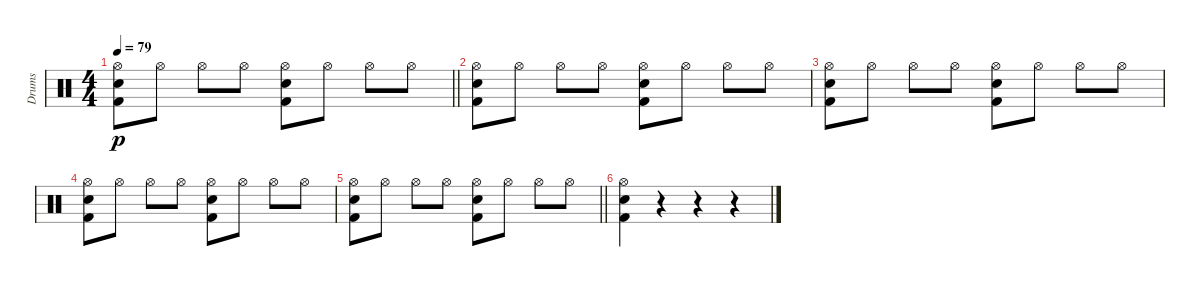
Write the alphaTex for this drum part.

\track ("Drums" "Drums") {instrument percussion}
\staff
\articulation defaults
\ts (4 4)
\tempo 79
\clef neutral
\barLineRight lightlight
\ks c
("Hi-Hat (open)" "Electric Snare (hit)" "Kick (hit) 2").8{dy p} "Hi-Hat (open)".8 "Hi-Hat (open)".8 "Hi-Hat (open)".8 ("Hi-Hat (open)" "Electric Snare (hit)" "Kick (hit) 2").8 "Hi-Hat (open)".8 "Hi-Hat (open)".8 "Hi-Hat (open)".8 |
("Hi-Hat (open)" "Electric Snare (hit)" "Kick (hit) 2").8 "Hi-Hat (open)".8 "Hi-Hat (open)".8 "Hi-Hat (open)".8 ("Hi-Hat (open)" "Electric Snare (hit)" "Kick (hit) 2").8 "Hi-Hat (open)".8 "Hi-Hat (open)".8 "Hi-Hat (open)".8 |
("Hi-Hat (open)" "Electric Snare (hit)" "Kick (hit) 2").8 "Hi-Hat (open)".8 "Hi-Hat (open)".8 "Hi-Hat (open)".8 ("Hi-Hat (open)" "Electric Snare (hit)" "Kick (hit) 2").8 "Hi-Hat (open)".8 "Hi-Hat (open)".8 "Hi-Hat (open)".8 |
("Hi-Hat (open)" "Electric Snare (hit)" "Kick (hit) 2").8 "Hi-Hat (open)".8 "Hi-Hat (open)".8 "Hi-Hat (open)".8 ("Hi-Hat (open)" "Electric Snare (hit)" "Kick (hit) 2").8 "Hi-Hat (open)".8 "Hi-Hat (open)".8 "Hi-Hat (open)".8 |
\barLineRight lightlight
("Hi-Hat (open)" "Electric Snare (hit)" "Kick (hit) 2").8 "Hi-Hat (open)".8 "Hi-Hat (open)".8 "Hi-Hat (open)".8 ("Hi-Hat (open)" "Electric Snare (hit)" "Kick (hit) 2").8 "Hi-Hat (open)".8 "Hi-Hat (open)".8 "Hi-Hat (open)".8 |
("Hi-Hat (open)" "Electric Snare (hit)" "Kick (hit) 2").4 r.4 r.4 r.4
